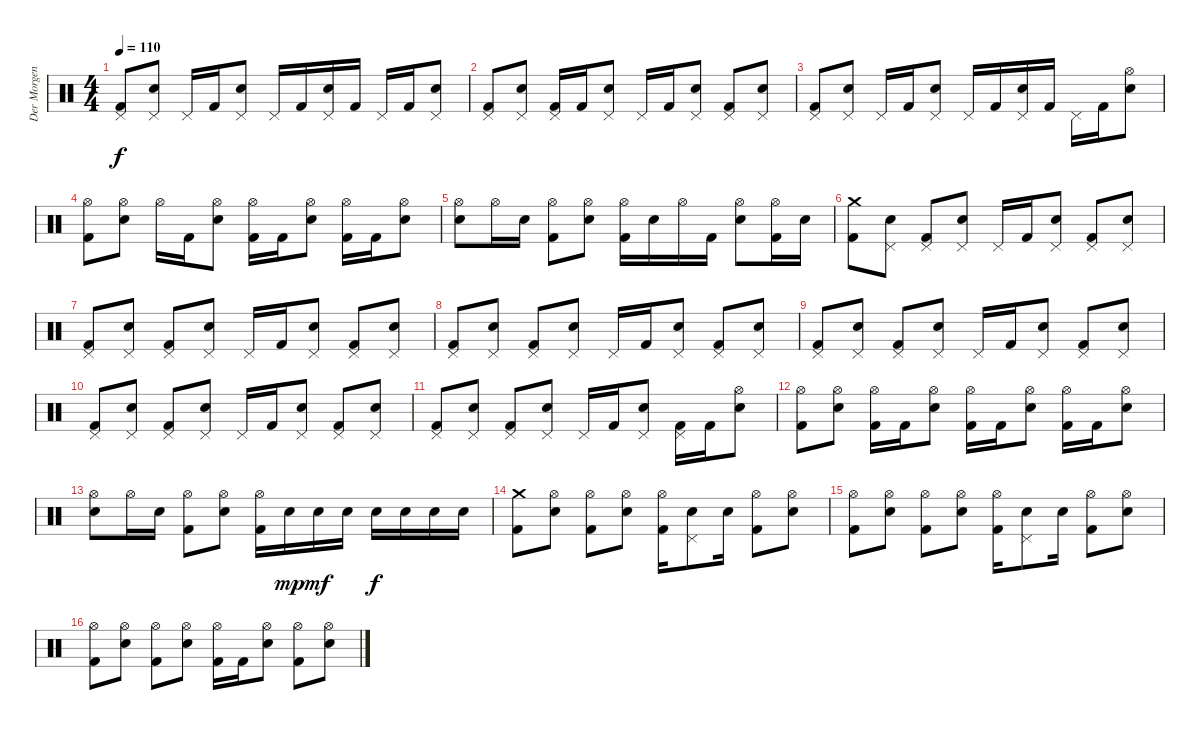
\track ("Der Morgenstern" "Der Morgen") {instrument percussion}
\staff {score}
\articulation defaults
\ts (4 4)
\tempo 110
\clef neutral
\ks c
("Pedal Hi-Hat (hit)" "Kick (hit) 2").8{dy f} ("Pedal Hi-Hat (hit)" "Electric Snare (hit)").8 "Pedal Hi-Hat (hit)".16 "Kick (hit) 2".16 ("Pedal Hi-Hat (hit)" "Electric Snare (hit)").8 "Pedal Hi-Hat (hit)".16 "Kick (hit) 2".16 ("Pedal Hi-Hat (hit)" "Electric Snare (hit)").16 "Kick (hit) 2".16 "Pedal Hi-Hat (hit)".16 "Kick (hit) 2".16 ("Pedal Hi-Hat (hit)" "Electric Snare (hit)").8 |
("Pedal Hi-Hat (hit)" "Kick (hit) 2").8 ("Pedal Hi-Hat (hit)" "Electric Snare (hit)").8 ("Pedal Hi-Hat (hit)" "Kick (hit) 2").16 "Kick (hit) 2".16 ("Pedal Hi-Hat (hit)" "Electric Snare (hit)").8 "Pedal Hi-Hat (hit)".16 "Kick (hit) 2".16 ("Pedal Hi-Hat (hit)" "Electric Snare (hit)").8 ("Pedal Hi-Hat (hit)" "Kick (hit) 2").8 ("Pedal Hi-Hat (hit)" "Electric Snare (hit)").8 |
("Pedal Hi-Hat (hit)" "Kick (hit) 2").8 ("Pedal Hi-Hat (hit)" "Electric Snare (hit)").8 "Pedal Hi-Hat (hit)".16 "Kick (hit) 2".16 ("Pedal Hi-Hat (hit)" "Electric Snare (hit)").8 "Pedal Hi-Hat (hit)".16 "Kick (hit) 2".16 ("Pedal Hi-Hat (hit)" "Electric Snare (hit)").16 "Kick (hit) 2".16 "Pedal Hi-Hat (hit)".16 "Kick (hit) 2".16 ("Hi-Hat (open)" "Electric Snare (hit)").8 |
("Hi-Hat (open)" "Kick (hit) 2").8 ("Hi-Hat (open)" "Electric Snare (hit)").8 "Hi-Hat (open)".16 "Kick (hit) 2".16 ("Hi-Hat (open)" "Electric Snare (hit)").8 ("Hi-Hat (open)" "Kick (hit) 2").16 "Kick (hit) 2".16 ("Hi-Hat (open)" "Electric Snare (hit)").8 ("Hi-Hat (open)" "Kick (hit) 2").16 "Kick (hit) 2".16 ("Hi-Hat (open)" "Electric Snare (hit)").8 |
("Hi-Hat (open)" "Electric Snare (hit)").8 "Hi-Hat (open)".16 "Electric Snare (hit)".16 ("Hi-Hat (open)" "Kick (hit) 2").8 ("Hi-Hat (open)" "Electric Snare (hit)").8 ("Hi-Hat (open)" "Kick (hit) 2").16 "Electric Snare (hit)".16 "Hi-Hat (open)".16 "Kick (hit) 2".16 ("Hi-Hat (open)" "Electric Snare (hit)").8 ("Hi-Hat (open)" "Kick (hit) 2").16 "Electric Snare (hit)".16 |
("Crash medium (hit)" "Kick (hit) 2").8 ("Pedal Hi-Hat (hit)" "Electric Snare (hit)").8 ("Pedal Hi-Hat (hit)" "Kick (hit) 2").8 ("Pedal Hi-Hat (hit)" "Electric Snare (hit)").8 "Pedal Hi-Hat (hit)".16 "Kick (hit) 2".16 ("Pedal Hi-Hat (hit)" "Electric Snare (hit)").8 ("Pedal Hi-Hat (hit)" "Kick (hit) 2").8 ("Pedal Hi-Hat (hit)" "Electric Snare (hit)").8 |
("Pedal Hi-Hat (hit)" "Kick (hit) 2").8 ("Pedal Hi-Hat (hit)" "Electric Snare (hit)").8 ("Pedal Hi-Hat (hit)" "Kick (hit) 2").8 ("Pedal Hi-Hat (hit)" "Electric Snare (hit)").8 "Pedal Hi-Hat (hit)".16 "Kick (hit) 2".16 ("Pedal Hi-Hat (hit)" "Electric Snare (hit)").8 ("Pedal Hi-Hat (hit)" "Kick (hit) 2").8 ("Pedal Hi-Hat (hit)" "Electric Snare (hit)").8 |
("Pedal Hi-Hat (hit)" "Kick (hit) 2").8 ("Pedal Hi-Hat (hit)" "Electric Snare (hit)").8 ("Pedal Hi-Hat (hit)" "Kick (hit) 2").8 ("Pedal Hi-Hat (hit)" "Electric Snare (hit)").8 "Pedal Hi-Hat (hit)".16 "Kick (hit) 2".16 ("Pedal Hi-Hat (hit)" "Electric Snare (hit)").8 ("Pedal Hi-Hat (hit)" "Kick (hit) 2").8 ("Pedal Hi-Hat (hit)" "Electric Snare (hit)").8 |
("Pedal Hi-Hat (hit)" "Kick (hit) 2").8 ("Pedal Hi-Hat (hit)" "Electric Snare (hit)").8 ("Pedal Hi-Hat (hit)" "Kick (hit) 2").8 ("Pedal Hi-Hat (hit)" "Electric Snare (hit)").8 "Pedal Hi-Hat (hit)".16 "Kick (hit) 2".16 ("Pedal Hi-Hat (hit)" "Electric Snare (hit)").8 ("Pedal Hi-Hat (hit)" "Kick (hit) 2").8 ("Pedal Hi-Hat (hit)" "Electric Snare (hit)").8 |
("Pedal Hi-Hat (hit)" "Kick (hit) 2").8 ("Pedal Hi-Hat (hit)" "Electric Snare (hit)").8 ("Pedal Hi-Hat (hit)" "Kick (hit) 2").8 ("Pedal Hi-Hat (hit)" "Electric Snare (hit)").8 "Pedal Hi-Hat (hit)".16 "Kick (hit) 2".16 ("Pedal Hi-Hat (hit)" "Electric Snare (hit)").8 ("Pedal Hi-Hat (hit)" "Kick (hit) 2").8 ("Pedal Hi-Hat (hit)" "Electric Snare (hit)").8 |
("Pedal Hi-Hat (hit)" "Kick (hit) 2").8 ("Pedal Hi-Hat (hit)" "Electric Snare (hit)").8 ("Pedal Hi-Hat (hit)" "Kick (hit) 2").8 ("Pedal Hi-Hat (hit)" "Electric Snare (hit)").8 "Pedal Hi-Hat (hit)".16 "Kick (hit) 2".16 ("Pedal Hi-Hat (hit)" "Electric Snare (hit)").8 ("Pedal Hi-Hat (hit)" "Kick (hit) 2").16 "Kick (hit) 2".16 ("Hi-Hat (open)" "Electric Snare (hit)").8 |
("Hi-Hat (open)" "Kick (hit) 2").8 ("Hi-Hat (open)" "Electric Snare (hit)").8 ("Hi-Hat (open)" "Kick (hit) 2").16 "Kick (hit) 2".16 ("Hi-Hat (open)" "Electric Snare (hit)").8 ("Hi-Hat (open)" "Kick (hit) 2").16 "Kick (hit) 2".16 ("Hi-Hat (open)" "Electric Snare (hit)").8 ("Hi-Hat (open)" "Kick (hit) 2").16 "Kick (hit) 2".16 ("Hi-Hat (open)" "Electric Snare (hit)").8 |
("Hi-Hat (open)" "Electric Snare (hit)").8 "Hi-Hat (open)".16 "Electric Snare (hit)".16 ("Hi-Hat (open)" "Kick (hit) 2").8 ("Hi-Hat (open)" "Electric Snare (hit)").8 ("Hi-Hat (open)" "Kick (hit) 2").16 "Electric Snare (hit)".16{dy mp} "Electric Snare (hit)".16{dy mf} "Electric Snare (hit)".16 "Electric Snare (hit)".16{dy f} "Electric Snare (hit)".16 "Electric Snare (hit)".16 "Electric Snare (hit)".16 |
("Crash medium (hit)" "Kick (hit) 2").8 ("Hi-Hat (open)" "Electric Snare (hit)").8 ("Hi-Hat (open)" "Kick (hit) 2").8 ("Hi-Hat (open)" "Electric Snare (hit)").8 ("Hi-Hat (open)" "Kick (hit) 2").16 ("Pedal Hi-Hat (hit)" "Electric Snare (hit)").8 "Electric Snare (hit)".16 ("Hi-Hat (open)" "Kick (hit) 2").8 ("Hi-Hat (open)" "Electric Snare (hit)").8 |
("Hi-Hat (open)" "Kick (hit) 2").8 ("Hi-Hat (open)" "Electric Snare (hit)").8 ("Hi-Hat (open)" "Kick (hit) 2").8 ("Hi-Hat (open)" "Electric Snare (hit)").8 ("Hi-Hat (open)" "Kick (hit) 2").16 ("Pedal Hi-Hat (hit)" "Electric Snare (hit)").8 "Electric Snare (hit)".16 ("Hi-Hat (open)" "Kick (hit) 2").8 ("Hi-Hat (open)" "Electric Snare (hit)").8 |
("Hi-Hat (open)" "Kick (hit) 2").8 ("Hi-Hat (open)" "Electric Snare (hit)").8 ("Hi-Hat (open)" "Kick (hit) 2").8 ("Hi-Hat (open)" "Electric Snare (hit)").8 ("Hi-Hat (open)" "Kick (hit) 2").16 "Kick (hit) 2".16 ("Hi-Hat (open)" "Electric Snare (hit)").8 ("Hi-Hat (open)" "Kick (hit) 2").8 ("Hi-Hat (open)" "Electric Snare (hit)").8
